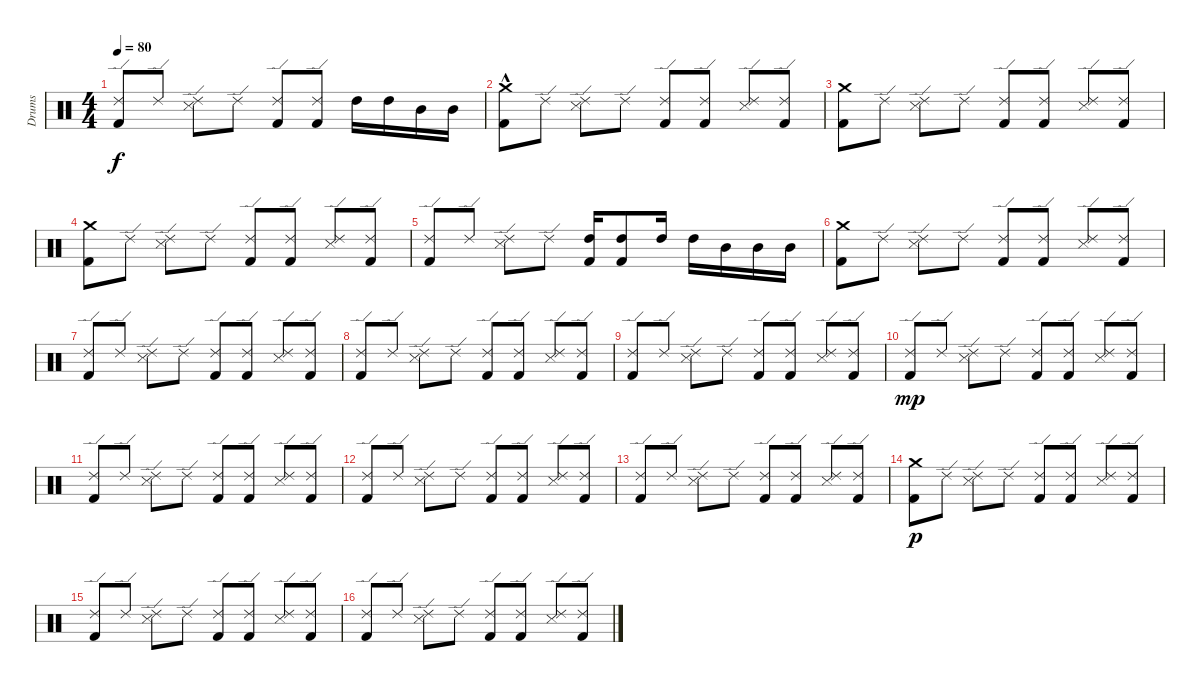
\track ("Drums" "Drums") {instrument percussion}
\staff {score}
\articulation defaults
\ts (4 4)
\tempo 80
\clef neutral
\ks c
("Ride (edge) 2" "Kick (hit) 2").8{dy f} "Ride (edge) 2".8 ("Ride (edge) 2" "Snare (side stick) 3").8 "Ride (edge) 2".8 ("Ride (edge) 2" "Kick (hit) 2").8 ("Ride (edge) 2" "Kick (hit) 2").8 "High Tom (hit)".16 "High Tom (hit)".16 "Mid Tom (hit)".16 "Mid Tom (hit)".16 |
("Crash medium (hit)"{hac} "Kick (hit) 2").8 "Ride (edge) 2".8 ("Ride (edge) 2" "Snare (side stick) 3").8 "Ride (edge) 2".8 ("Ride (edge) 2" "Kick (hit) 2").8 ("Ride (edge) 2" "Kick (hit) 2").8 ("Ride (edge) 2" "Snare (side stick) 3").8 ("Ride (edge) 2" "Kick (hit) 2").8 |
("Crash medium (hit)" "Kick (hit) 2").8 "Ride (edge) 2".8 ("Ride (edge) 2" "Snare (side stick) 3").8 "Ride (edge) 2".8 ("Ride (edge) 2" "Kick (hit) 2").8 ("Ride (edge) 2" "Kick (hit) 2").8 ("Ride (edge) 2" "Snare (side stick) 3").8 ("Ride (edge) 2" "Kick (hit) 2").8 |
("Crash medium (hit)" "Kick (hit) 2").8 "Ride (edge) 2".8 ("Ride (edge) 2" "Snare (side stick) 3").8 "Ride (edge) 2".8 ("Ride (edge) 2" "Kick (hit) 2").8 ("Ride (edge) 2" "Kick (hit) 2").8 ("Ride (edge) 2" "Snare (side stick) 3").8 ("Ride (edge) 2" "Kick (hit) 2").8 |
("Ride (edge) 2" "Kick (hit) 2").8 "Ride (edge) 2".8 ("Ride (edge) 2" "Snare (side stick) 3").8 "Ride (edge) 2".8 ("High Tom (hit)" "Kick (hit) 2").16 ("High Tom (hit)" "Kick (hit) 2").8 "High Tom (hit)".16 "High Tom (hit)".16 "Mid Tom (hit)".16 "Mid Tom (hit)".16 "Mid Tom (hit)".16 |
("Crash medium (hit)" "Kick (hit) 2").8 "Ride (edge) 2".8 ("Ride (edge) 2" "Snare (side stick) 3").8 "Ride (edge) 2".8 ("Ride (edge) 2" "Kick (hit) 2").8 ("Ride (edge) 2" "Kick (hit) 2").8 ("Ride (edge) 2" "Snare (side stick) 3").8 ("Ride (edge) 2" "Kick (hit) 2").8 |
("Ride (edge) 2" "Kick (hit) 2").8 "Ride (edge) 2".8 ("Ride (edge) 2" "Snare (side stick) 3").8 "Ride (edge) 2".8 ("Ride (edge) 2" "Kick (hit) 2").8 ("Ride (edge) 2" "Kick (hit) 2").8 ("Ride (edge) 2" "Snare (side stick) 3").8 ("Ride (edge) 2" "Kick (hit) 2").8 |
("Ride (edge) 2" "Kick (hit) 2").8 "Ride (edge) 2".8 ("Ride (edge) 2" "Snare (side stick) 3").8 "Ride (edge) 2".8 ("Ride (edge) 2" "Kick (hit) 2").8 ("Ride (edge) 2" "Kick (hit) 2").8 ("Ride (edge) 2" "Snare (side stick) 3").8 ("Ride (edge) 2" "Kick (hit) 2").8 |
("Ride (edge) 2" "Kick (hit) 2").8 "Ride (edge) 2".8 ("Ride (edge) 2" "Snare (side stick) 3").8 "Ride (edge) 2".8 ("Ride (edge) 2" "Kick (hit) 2").8 ("Ride (edge) 2" "Kick (hit) 2").8 ("Ride (edge) 2" "Snare (side stick) 3").8 ("Ride (edge) 2" "Kick (hit) 2").8 |
("Ride (edge) 2" "Kick (hit) 2").8{dy mp} "Ride (edge) 2".8 ("Ride (edge) 2" "Snare (side stick) 3").8 "Ride (edge) 2".8 ("Ride (edge) 2" "Kick (hit) 2").8 ("Ride (edge) 2" "Kick (hit) 2").8 ("Ride (edge) 2" "Snare (side stick) 3").8 ("Ride (edge) 2" "Kick (hit) 2").8 |
("Ride (edge) 2" "Kick (hit) 2").8 "Ride (edge) 2".8 ("Ride (edge) 2" "Snare (side stick) 3").8 "Ride (edge) 2".8 ("Ride (edge) 2" "Kick (hit) 2").8 ("Ride (edge) 2" "Kick (hit) 2").8 ("Ride (edge) 2" "Snare (side stick) 3").8 ("Ride (edge) 2" "Kick (hit) 2").8 |
("Ride (edge) 2" "Kick (hit) 2").8 "Ride (edge) 2".8 ("Ride (edge) 2" "Snare (side stick) 3").8 "Ride (edge) 2".8 ("Ride (edge) 2" "Kick (hit) 2").8 ("Ride (edge) 2" "Kick (hit) 2").8 ("Ride (edge) 2" "Snare (side stick) 3").8 ("Ride (edge) 2" "Kick (hit) 2").8 |
("Ride (edge) 2" "Kick (hit) 2").8 "Ride (edge) 2".8 ("Ride (edge) 2" "Snare (side stick) 3").8 "Ride (edge) 2".8 ("Ride (edge) 2" "Kick (hit) 2").8 ("Ride (edge) 2" "Kick (hit) 2").8 ("Ride (edge) 2" "Snare (side stick) 3").8 ("Ride (edge) 2" "Kick (hit) 2").8 |
("Crash medium (hit)" "Kick (hit) 2").8{dy p} "Ride (edge) 2".8 ("Ride (edge) 2" "Snare (side stick) 3").8 "Ride (edge) 2".8 ("Ride (edge) 2" "Kick (hit) 2").8 ("Ride (edge) 2" "Kick (hit) 2").8 ("Ride (edge) 2" "Snare (side stick) 3").8 ("Ride (edge) 2" "Kick (hit) 2").8 |
("Ride (edge) 2" "Kick (hit) 2").8 "Ride (edge) 2".8 ("Ride (edge) 2" "Snare (side stick) 3").8 "Ride (edge) 2".8 ("Ride (edge) 2" "Kick (hit) 2").8 ("Ride (edge) 2" "Kick (hit) 2").8 ("Ride (edge) 2" "Snare (side stick) 3").8 ("Ride (edge) 2" "Kick (hit) 2").8 |
("Ride (edge) 2" "Kick (hit) 2").8 "Ride (edge) 2".8 ("Ride (edge) 2" "Snare (side stick) 3").8 "Ride (edge) 2".8 ("Ride (edge) 2" "Kick (hit) 2").8 ("Ride (edge) 2" "Kick (hit) 2").8 ("Ride (edge) 2" "Snare (side stick) 3").8 ("Ride (edge) 2" "Kick (hit) 2").8
